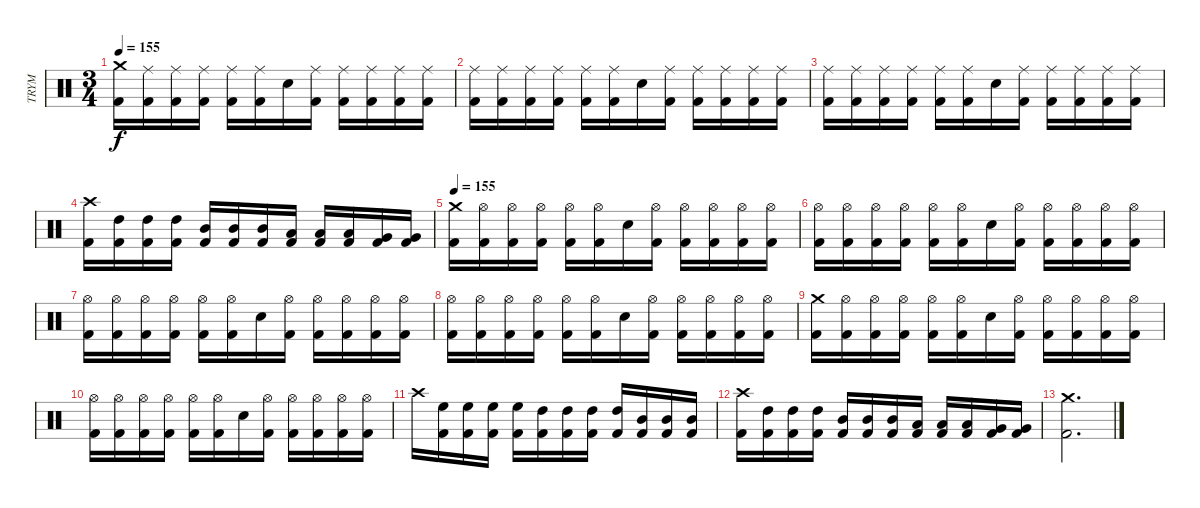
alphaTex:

\track ("TRYM" "TRYM") {instrument percussion}
\staff {score}
\articulation defaults
\ts (3 4)
\tempo 155
\clef neutral
\ks c
("Kick (hit) 2" "Crash medium (hit)").16{dy f} ("Kick (hit) 2" "Ride (middle)").16 ("Kick (hit) 2" "Ride (middle)").16 ("Kick (hit) 2" "Ride (middle)").16 ("Kick (hit) 2" "Ride (middle)").16 ("Kick (hit) 2" "Ride (middle)").16 "Electric Snare (hit)".16 ("Kick (hit) 2" "Ride (middle)").16 ("Kick (hit) 2" "Ride (middle)").16 ("Kick (hit) 2" "Ride (middle)").16 ("Kick (hit) 2" "Ride (middle)").16 ("Kick (hit) 2" "Ride (middle)").16 |
("Kick (hit) 2" "Ride (middle)").16 ("Kick (hit) 2" "Ride (middle)").16 ("Kick (hit) 2" "Ride (middle)").16 ("Kick (hit) 2" "Ride (middle)").16 ("Kick (hit) 2" "Ride (middle)").16 ("Kick (hit) 2" "Ride (middle)").16 "Electric Snare (hit)".16 ("Kick (hit) 2" "Ride (middle)").16 ("Kick (hit) 2" "Ride (middle)").16 ("Kick (hit) 2" "Ride (middle)").16 ("Kick (hit) 2" "Ride (middle)").16 ("Kick (hit) 2" "Ride (middle)").16 |
("Kick (hit) 2" "Ride (middle)").16 ("Kick (hit) 2" "Ride (middle)").16 ("Kick (hit) 2" "Ride (middle)").16 ("Kick (hit) 2" "Ride (middle)").16 ("Kick (hit) 2" "Ride (middle)").16 ("Kick (hit) 2" "Ride (middle)").16 "Electric Snare (hit)".16 ("Kick (hit) 2" "Ride (middle)").16 ("Kick (hit) 2" "Ride (middle)").16 ("Kick (hit) 2" "Ride (middle)").16 ("Kick (hit) 2" "Ride (middle)").16 ("Kick (hit) 2" "Ride (middle)").16 |
("Kick (hit) 2" "Crash high (hit)").16 ("Kick (hit) 2" "High Tom (hit)").16 ("Kick (hit) 2" "High Tom (hit)").16 ("Kick (hit) 2" "High Tom (hit)").16 ("Kick (hit) 2" "Mid Tom (hit)").16 ("Kick (hit) 2" "Mid Tom (hit)").16 ("Kick (hit) 2" "Mid Tom (hit)").16 ("Kick (hit) 2" "Low Tom (hit)").16 ("Kick (hit) 2" "Low Tom (hit)").16 ("Kick (hit) 2" "Low Tom (hit)").16 ("Kick (hit) 2" "Very Low Tom (hit)").16 ("Kick (hit) 2" "Very Low Tom (hit)").16 |
\tempo 155
("Kick (hit) 2" "Crash medium (hit)").16 ("Kick (hit) 2" "Hi-Hat (open)").16 ("Kick (hit) 2" "Hi-Hat (open)").16 ("Kick (hit) 2" "Hi-Hat (open)").16 ("Kick (hit) 2" "Hi-Hat (open)").16 ("Kick (hit) 2" "Hi-Hat (open)").16 "Electric Snare (hit)".16 ("Kick (hit) 2" "Hi-Hat (open)").16 ("Kick (hit) 2" "Hi-Hat (open)").16 ("Kick (hit) 2" "Hi-Hat (open)").16 ("Kick (hit) 2" "Hi-Hat (open)").16 ("Kick (hit) 2" "Hi-Hat (open)").16 |
("Kick (hit) 2" "Hi-Hat (open)").16 ("Kick (hit) 2" "Hi-Hat (open)").16 ("Kick (hit) 2" "Hi-Hat (open)").16 ("Kick (hit) 2" "Hi-Hat (open)").16 ("Kick (hit) 2" "Hi-Hat (open)").16 ("Kick (hit) 2" "Hi-Hat (open)").16 "Electric Snare (hit)".16 ("Kick (hit) 2" "Hi-Hat (open)").16 ("Kick (hit) 2" "Hi-Hat (open)").16 ("Kick (hit) 2" "Hi-Hat (open)").16 ("Kick (hit) 2" "Hi-Hat (open)").16 ("Kick (hit) 2" "Hi-Hat (open)").16 |
("Kick (hit) 2" "Hi-Hat (open)").16 ("Kick (hit) 2" "Hi-Hat (open)").16 ("Kick (hit) 2" "Hi-Hat (open)").16 ("Kick (hit) 2" "Hi-Hat (open)").16 ("Kick (hit) 2" "Hi-Hat (open)").16 ("Kick (hit) 2" "Hi-Hat (open)").16 "Electric Snare (hit)".16 ("Kick (hit) 2" "Hi-Hat (open)").16 ("Kick (hit) 2" "Hi-Hat (open)").16 ("Kick (hit) 2" "Hi-Hat (open)").16 ("Kick (hit) 2" "Hi-Hat (open)").16 ("Kick (hit) 2" "Hi-Hat (open)").16 |
("Kick (hit) 2" "Hi-Hat (open)").16 ("Kick (hit) 2" "Hi-Hat (open)").16 ("Kick (hit) 2" "Hi-Hat (open)").16 ("Kick (hit) 2" "Hi-Hat (open)").16 ("Kick (hit) 2" "Hi-Hat (open)").16 ("Kick (hit) 2" "Hi-Hat (open)").16 "Electric Snare (hit)".16 ("Kick (hit) 2" "Hi-Hat (open)").16 ("Kick (hit) 2" "Hi-Hat (open)").16 ("Kick (hit) 2" "Hi-Hat (open)").16 ("Kick (hit) 2" "Hi-Hat (open)").16 ("Kick (hit) 2" "Hi-Hat (open)").16 |
("Kick (hit) 2" "Crash medium (hit)").16 ("Kick (hit) 2" "Hi-Hat (open)").16 ("Kick (hit) 2" "Hi-Hat (open)").16 ("Kick (hit) 2" "Hi-Hat (open)").16 ("Kick (hit) 2" "Hi-Hat (open)").16 ("Kick (hit) 2" "Hi-Hat (open)").16 "Electric Snare (hit)".16 ("Kick (hit) 2" "Hi-Hat (open)").16 ("Kick (hit) 2" "Hi-Hat (open)").16 ("Kick (hit) 2" "Hi-Hat (open)").16 ("Kick (hit) 2" "Hi-Hat (open)").16 ("Kick (hit) 2" "Hi-Hat (open)").16 |
("Kick (hit) 2" "Hi-Hat (open)").16 ("Kick (hit) 2" "Hi-Hat (open)").16 ("Kick (hit) 2" "Hi-Hat (open)").16 ("Kick (hit) 2" "Hi-Hat (open)").16 ("Kick (hit) 2" "Hi-Hat (open)").16 ("Kick (hit) 2" "Hi-Hat (open)").16 "Electric Snare (hit)".16 ("Kick (hit) 2" "Hi-Hat (open)").16 ("Kick (hit) 2" "Hi-Hat (open)").16 ("Kick (hit) 2" "Hi-Hat (open)").16 ("Kick (hit) 2" "Hi-Hat (open)").16 ("Kick (hit) 2" "Hi-Hat (open)").16 |
"Crash high (hit)".16 ("Kick (hit) 2" "High Floor Tom (hit)").16 ("Kick (hit) 2" "High Floor Tom (hit)").16 ("Kick (hit) 2" "High Floor Tom (hit)").16 ("Kick (hit) 2" "High Floor Tom (hit)").16 ("Kick (hit) 2" "High Tom (hit)").16 ("Kick (hit) 2" "High Tom (hit)").16 ("Kick (hit) 2" "High Tom (hit)").16 ("Kick (hit) 2" "High Tom (hit)").16 ("Kick (hit) 2" "Mid Tom (hit)").16 ("Kick (hit) 2" "Mid Tom (hit)").16 ("Kick (hit) 2" "Mid Tom (hit)").16 |
("Kick (hit) 2" "Crash high (hit)").16 ("Kick (hit) 2" "High Tom (hit)").16 ("Kick (hit) 2" "High Tom (hit)").16 ("Kick (hit) 2" "High Tom (hit)").16 ("Kick (hit) 2" "Mid Tom (hit)").16 ("Kick (hit) 2" "Mid Tom (hit)").16 ("Kick (hit) 2" "Mid Tom (hit)").16 ("Kick (hit) 2" "Low Tom (hit)").16 ("Kick (hit) 2" "Low Tom (hit)").16 ("Kick (hit) 2" "Low Tom (hit)").16 ("Kick (hit) 2" "Very Low Tom (hit)").16 ("Kick (hit) 2" "Very Low Tom (hit)").16 |
("Kick (hit) 2" "Crash medium (hit)").2{d}
